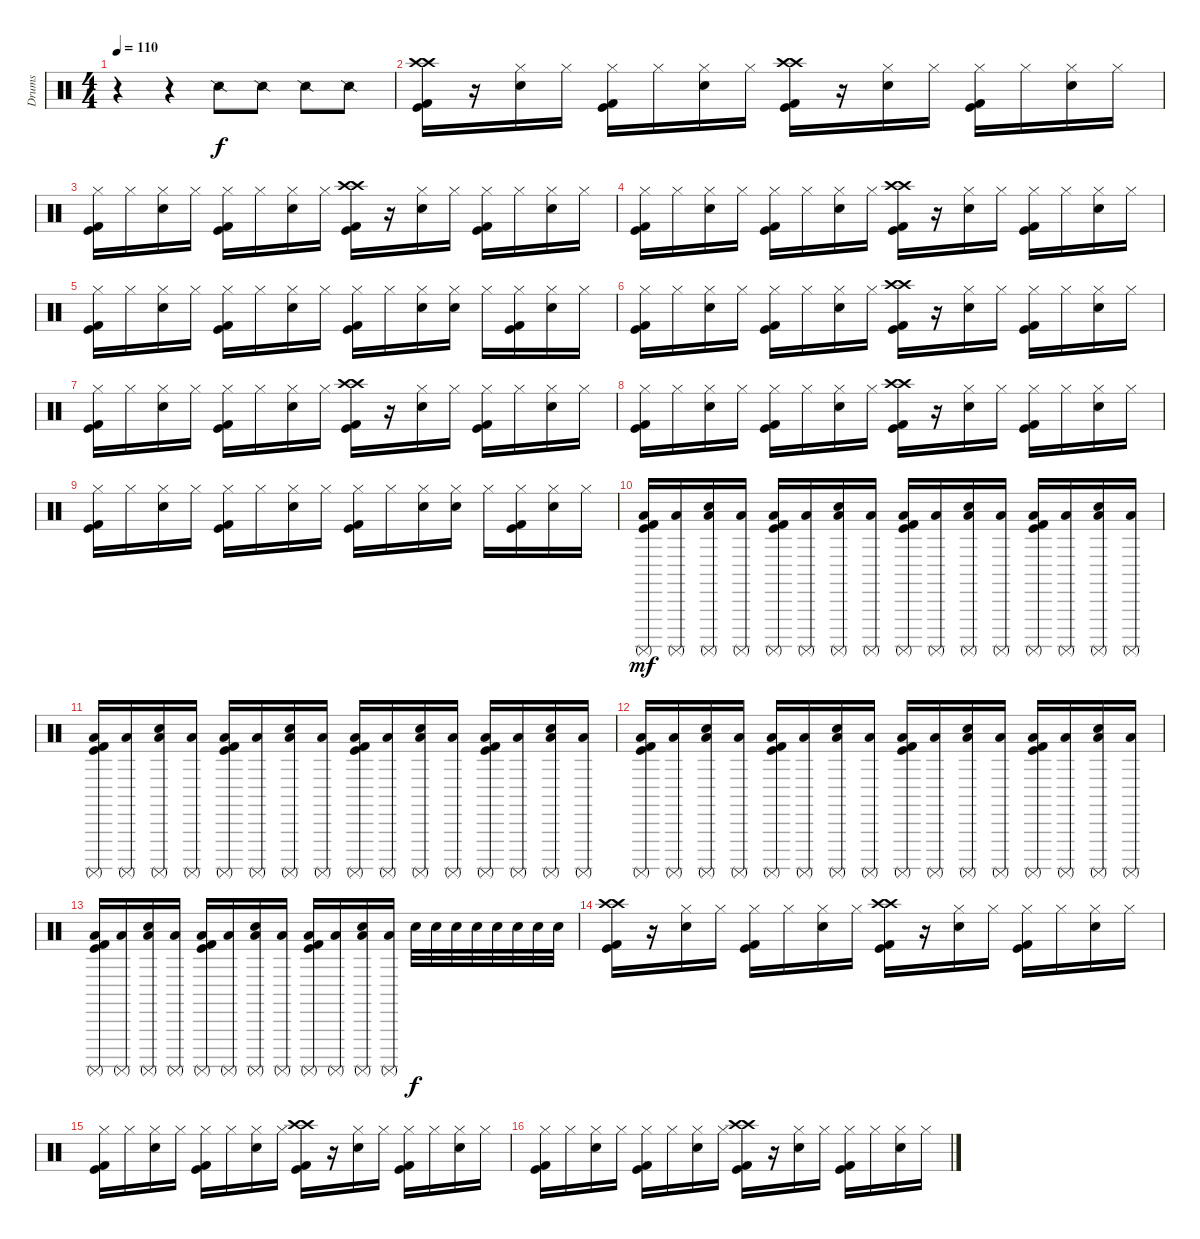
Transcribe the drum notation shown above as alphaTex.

\track ("Drums" "Drums") {instrument percussion}
\staff {score}
\articulation defaults
\ts (4 4)
\tempo 110
\clef neutral
\ks c
r.4{dy f} r.4 "Snare (side stick) 2".8 "Snare (side stick) 2".8 "Snare (side stick) 2".8 "Snare (side stick) 2".8 |
("Crash high (hit)" "Crash high (hit)" "Kick (hit) 2" "Kick (hit)").16 r.16 ("Hi-Hat (closed)" "Snare (hit) 2").16 "Hi-Hat (closed)".16 ("Hi-Hat (closed)" "Kick (hit) 2" "Kick (hit)").16 "Hi-Hat (closed)".16 ("Hi-Hat (closed)" "Snare (hit) 2").16 "Hi-Hat (closed)".16 ("Crash high (hit)" "Crash high (hit)" "Kick (hit) 2" "Kick (hit)").16 r.16 ("Hi-Hat (closed)" "Snare (hit) 2").16 "Hi-Hat (closed)".16 ("Hi-Hat (closed)" "Kick (hit) 2" "Kick (hit)").16 "Hi-Hat (closed)".16 ("Hi-Hat (closed)" "Snare (hit) 2").16 "Hi-Hat (closed)".16 |
("Hi-Hat (closed)" "Kick (hit) 2" "Kick (hit)").16 "Hi-Hat (closed)".16 ("Hi-Hat (closed)" "Snare (hit) 2").16 "Hi-Hat (closed)".16 ("Hi-Hat (closed)" "Kick (hit) 2" "Kick (hit)").16 "Hi-Hat (closed)".16 ("Hi-Hat (closed)" "Snare (hit) 2").16 "Hi-Hat (closed)".16 ("Crash high (hit)" "Crash high (hit)" "Kick (hit) 2" "Kick (hit)").16 r.16 ("Hi-Hat (closed)" "Snare (hit) 2").16 "Hi-Hat (closed)".16 ("Hi-Hat (closed)" "Kick (hit) 2" "Kick (hit)").16 "Hi-Hat (closed)".16 ("Hi-Hat (closed)" "Snare (hit) 2").16 "Hi-Hat (closed)".16 |
("Hi-Hat (closed)" "Kick (hit) 2" "Kick (hit)").16 "Hi-Hat (closed)".16 ("Hi-Hat (closed)" "Snare (hit) 2").16 "Hi-Hat (closed)".16 ("Hi-Hat (closed)" "Kick (hit) 2" "Kick (hit)").16 "Hi-Hat (closed)".16 ("Hi-Hat (closed)" "Snare (hit) 2").16 "Hi-Hat (closed)".16 ("Crash high (hit)" "Crash high (hit)" "Kick (hit) 2" "Kick (hit)").16 r.16 ("Hi-Hat (closed)" "Snare (hit) 2").16 "Hi-Hat (closed)".16 ("Hi-Hat (closed)" "Kick (hit) 2" "Kick (hit)").16 "Hi-Hat (closed)".16 ("Hi-Hat (closed)" "Snare (hit) 2").16 "Hi-Hat (closed)".16 |
("Hi-Hat (closed)" "Kick (hit) 2" "Kick (hit)").16 "Hi-Hat (closed)".16 ("Hi-Hat (closed)" "Snare (hit) 2").16 "Hi-Hat (closed)".16 ("Hi-Hat (closed)" "Kick (hit) 2" "Kick (hit)").16 "Hi-Hat (closed)".16 ("Hi-Hat (closed)" "Snare (hit) 2").16 "Hi-Hat (closed)".16 ("Hi-Hat (closed)" "Kick (hit) 2" "Kick (hit)").16 "Hi-Hat (closed)".16 ("Hi-Hat (closed)" "Snare (hit) 2").16 ("Hi-Hat (closed)" "Snare (hit) 2").16 "Hi-Hat (closed)".16 ("Hi-Hat (closed)" "Kick (hit) 2" "Kick (hit)").16 ("Hi-Hat (closed)" "Snare (hit) 2").16 "Hi-Hat (closed)".16 |
("Hi-Hat (closed)" "Kick (hit) 2" "Kick (hit)").16 "Hi-Hat (closed)".16 ("Hi-Hat (closed)" "Snare (hit) 2").16 "Hi-Hat (closed)".16 ("Hi-Hat (closed)" "Kick (hit) 2" "Kick (hit)").16 "Hi-Hat (closed)".16 ("Hi-Hat (closed)" "Snare (hit) 2").16 "Hi-Hat (closed)".16 ("Crash high (hit)" "Crash high (hit)" "Kick (hit) 2" "Kick (hit)").16 r.16 ("Hi-Hat (closed)" "Snare (hit) 2").16 "Hi-Hat (closed)".16 ("Hi-Hat (closed)" "Kick (hit) 2" "Kick (hit)").16 "Hi-Hat (closed)".16 ("Hi-Hat (closed)" "Snare (hit) 2").16 "Hi-Hat (closed)".16 |
("Hi-Hat (closed)" "Kick (hit) 2" "Kick (hit)").16 "Hi-Hat (closed)".16 ("Hi-Hat (closed)" "Snare (hit) 2").16 "Hi-Hat (closed)".16 ("Hi-Hat (closed)" "Kick (hit) 2" "Kick (hit)").16 "Hi-Hat (closed)".16 ("Hi-Hat (closed)" "Snare (hit) 2").16 "Hi-Hat (closed)".16 ("Crash high (hit)" "Crash high (hit)" "Kick (hit) 2" "Kick (hit)").16 r.16 ("Hi-Hat (closed)" "Snare (hit) 2").16 "Hi-Hat (closed)".16 ("Hi-Hat (closed)" "Kick (hit) 2" "Kick (hit)").16 "Hi-Hat (closed)".16 ("Hi-Hat (closed)" "Snare (hit) 2").16 "Hi-Hat (closed)".16 |
("Hi-Hat (closed)" "Kick (hit) 2" "Kick (hit)").16 "Hi-Hat (closed)".16 ("Hi-Hat (closed)" "Snare (hit) 2").16 "Hi-Hat (closed)".16 ("Hi-Hat (closed)" "Kick (hit) 2" "Kick (hit)").16 "Hi-Hat (closed)".16 ("Hi-Hat (closed)" "Snare (hit) 2").16 "Hi-Hat (closed)".16 ("Crash high (hit)" "Crash high (hit)" "Kick (hit) 2" "Kick (hit)").16 r.16 ("Hi-Hat (closed)" "Snare (hit) 2").16 "Hi-Hat (closed)".16 ("Hi-Hat (closed)" "Kick (hit) 2" "Kick (hit)").16 "Hi-Hat (closed)".16 ("Hi-Hat (closed)" "Snare (hit) 2").16 "Hi-Hat (closed)".16 |
("Hi-Hat (closed)" "Kick (hit) 2" "Kick (hit)").16 "Hi-Hat (closed)".16 ("Hi-Hat (closed)" "Snare (hit) 2").16 "Hi-Hat (closed)".16 ("Hi-Hat (closed)" "Kick (hit) 2" "Kick (hit)").16 "Hi-Hat (closed)".16 ("Hi-Hat (closed)" "Snare (hit) 2").16 "Hi-Hat (closed)".16 ("Hi-Hat (closed)" "Kick (hit) 2" "Kick (hit)").16 "Hi-Hat (closed)".16 ("Hi-Hat (closed)" "Snare (hit) 2").16 ("Hi-Hat (closed)" "Snare (hit) 2").16 "Hi-Hat (closed)".16 ("Hi-Hat (closed)" "Kick (hit) 2" "Kick (hit)").16 ("Hi-Hat (closed)" "Snare (hit) 2").16 "Hi-Hat (closed)".16 |
("Surdo (mute)" "Low Floor Tom (hit)" "Kick (hit) 2" "Kick (hit)").16{dy mf} ("Surdo (mute)" "Low Floor Tom (hit)").16 ("Surdo (mute)" "Low Floor Tom (hit)" "Snare (hit) 2").16 ("Surdo (mute)" "Low Floor Tom (hit)").16 ("Surdo (mute)" "Low Floor Tom (hit)" "Kick (hit) 2" "Kick (hit)").16 ("Surdo (mute)" "Low Floor Tom (hit)").16 ("Surdo (mute)" "Low Floor Tom (hit)" "Snare (hit) 2").16 ("Surdo (mute)" "Low Floor Tom (hit)").16 ("Surdo (mute)" "Low Floor Tom (hit)" "Kick (hit) 2" "Kick (hit)").16 ("Surdo (mute)" "Low Floor Tom (hit)").16 ("Surdo (mute)" "Low Floor Tom (hit)" "Snare (hit) 2").16 ("Surdo (mute)" "Low Floor Tom (hit)").16 ("Surdo (mute)" "Low Floor Tom (hit)" "Kick (hit) 2" "Kick (hit)").16 ("Surdo (mute)" "Low Floor Tom (hit)").16 ("Surdo (mute)" "Low Floor Tom (hit)" "Snare (hit) 2").16 ("Surdo (mute)" "Low Floor Tom (hit)").16 |
("Surdo (mute)" "Low Floor Tom (hit)" "Kick (hit) 2" "Kick (hit)").16 ("Surdo (mute)" "Low Floor Tom (hit)").16 ("Surdo (mute)" "Low Floor Tom (hit)" "Snare (hit) 2").16 ("Surdo (mute)" "Low Floor Tom (hit)").16 ("Surdo (mute)" "Low Floor Tom (hit)" "Kick (hit) 2" "Kick (hit)").16 ("Surdo (mute)" "Low Floor Tom (hit)").16 ("Surdo (mute)" "Low Floor Tom (hit)" "Snare (hit) 2").16 ("Surdo (mute)" "Low Floor Tom (hit)").16 ("Surdo (mute)" "Low Floor Tom (hit)" "Kick (hit) 2" "Kick (hit)").16 ("Surdo (mute)" "Low Floor Tom (hit)").16 ("Surdo (mute)" "Low Floor Tom (hit)" "Snare (hit) 2").16 ("Surdo (mute)" "Low Floor Tom (hit)").16 ("Surdo (mute)" "Low Floor Tom (hit)" "Kick (hit) 2" "Kick (hit)").16 ("Surdo (mute)" "Low Floor Tom (hit)").16 ("Surdo (mute)" "Low Floor Tom (hit)" "Snare (hit) 2").16 ("Surdo (mute)" "Low Floor Tom (hit)").16 |
("Surdo (mute)" "Low Floor Tom (hit)" "Kick (hit) 2" "Kick (hit)").16 ("Surdo (mute)" "Low Floor Tom (hit)").16 ("Surdo (mute)" "Low Floor Tom (hit)" "Snare (hit) 2").16 ("Surdo (mute)" "Low Floor Tom (hit)").16 ("Surdo (mute)" "Low Floor Tom (hit)" "Kick (hit) 2" "Kick (hit)").16 ("Surdo (mute)" "Low Floor Tom (hit)").16 ("Surdo (mute)" "Low Floor Tom (hit)" "Snare (hit) 2").16 ("Surdo (mute)" "Low Floor Tom (hit)").16 ("Surdo (mute)" "Low Floor Tom (hit)" "Kick (hit) 2" "Kick (hit)").16 ("Surdo (mute)" "Low Floor Tom (hit)").16 ("Surdo (mute)" "Low Floor Tom (hit)" "Snare (hit) 2").16 ("Surdo (mute)" "Low Floor Tom (hit)").16 ("Surdo (mute)" "Low Floor Tom (hit)" "Kick (hit) 2" "Kick (hit)").16 ("Surdo (mute)" "Low Floor Tom (hit)").16 ("Surdo (mute)" "Low Floor Tom (hit)" "Snare (hit) 2").16 ("Surdo (mute)" "Low Floor Tom (hit)").16 |
("Surdo (mute)" "Low Floor Tom (hit)" "Kick (hit) 2" "Kick (hit)").16 ("Surdo (mute)" "Low Floor Tom (hit)").16 ("Surdo (mute)" "Low Floor Tom (hit)" "Snare (hit) 2").16 ("Surdo (mute)" "Low Floor Tom (hit)").16 ("Surdo (mute)" "Low Floor Tom (hit)" "Kick (hit) 2" "Kick (hit)").16 ("Surdo (mute)" "Low Floor Tom (hit)").16 ("Surdo (mute)" "Low Floor Tom (hit)" "Snare (hit) 2").16 ("Surdo (mute)" "Low Floor Tom (hit)").16 ("Surdo (mute)" "Low Floor Tom (hit)" "Kick (hit) 2" "Kick (hit)").16 ("Surdo (mute)" "Low Floor Tom (hit)").16 ("Surdo (mute)" "Low Floor Tom (hit)" "Snare (hit) 2").16 ("Surdo (mute)" "Low Floor Tom (hit)").16 "Snare (hit) 2".32{dy f} "Snare (hit) 2".32 "Snare (hit) 2".32 "Snare (hit) 2".32 "Snare (hit) 2".32 "Snare (hit) 2".32 "Snare (hit) 2".32 "Snare (hit) 2".32 |
("Crash high (hit)" "Crash high (hit)" "Kick (hit) 2" "Kick (hit)").16 r.16 ("Hi-Hat (closed)" "Snare (hit) 2").16 "Hi-Hat (closed)".16 ("Hi-Hat (closed)" "Kick (hit) 2" "Kick (hit)").16 "Hi-Hat (closed)".16 ("Hi-Hat (closed)" "Snare (hit) 2").16 "Hi-Hat (closed)".16 ("Crash high (hit)" "Crash high (hit)" "Kick (hit) 2" "Kick (hit)").16 r.16 ("Hi-Hat (closed)" "Snare (hit) 2").16 "Hi-Hat (closed)".16 ("Hi-Hat (closed)" "Kick (hit) 2" "Kick (hit)").16 "Hi-Hat (closed)".16 ("Hi-Hat (closed)" "Snare (hit) 2").16 "Hi-Hat (closed)".16 |
("Hi-Hat (closed)" "Kick (hit) 2" "Kick (hit)").16 "Hi-Hat (closed)".16 ("Hi-Hat (closed)" "Snare (hit) 2").16 "Hi-Hat (closed)".16 ("Hi-Hat (closed)" "Kick (hit) 2" "Kick (hit)").16 "Hi-Hat (closed)".16 ("Hi-Hat (closed)" "Snare (hit) 2").16 "Hi-Hat (closed)".16 ("Crash high (hit)" "Crash high (hit)" "Kick (hit) 2" "Kick (hit)").16 r.16 ("Hi-Hat (closed)" "Snare (hit) 2").16 "Hi-Hat (closed)".16 ("Hi-Hat (closed)" "Kick (hit) 2" "Kick (hit)").16 "Hi-Hat (closed)".16 ("Hi-Hat (closed)" "Snare (hit) 2").16 "Hi-Hat (closed)".16 |
("Hi-Hat (closed)" "Kick (hit) 2" "Kick (hit)").16 "Hi-Hat (closed)".16 ("Hi-Hat (closed)" "Snare (hit) 2").16 "Hi-Hat (closed)".16 ("Hi-Hat (closed)" "Kick (hit) 2" "Kick (hit)").16 "Hi-Hat (closed)".16 ("Hi-Hat (closed)" "Snare (hit) 2").16 "Hi-Hat (closed)".16 ("Crash high (hit)" "Crash high (hit)" "Kick (hit) 2" "Kick (hit)").16 r.16 ("Hi-Hat (closed)" "Snare (hit) 2").16 "Hi-Hat (closed)".16 ("Hi-Hat (closed)" "Kick (hit) 2" "Kick (hit)").16 "Hi-Hat (closed)".16 ("Hi-Hat (closed)" "Snare (hit) 2").16 "Hi-Hat (closed)".16
